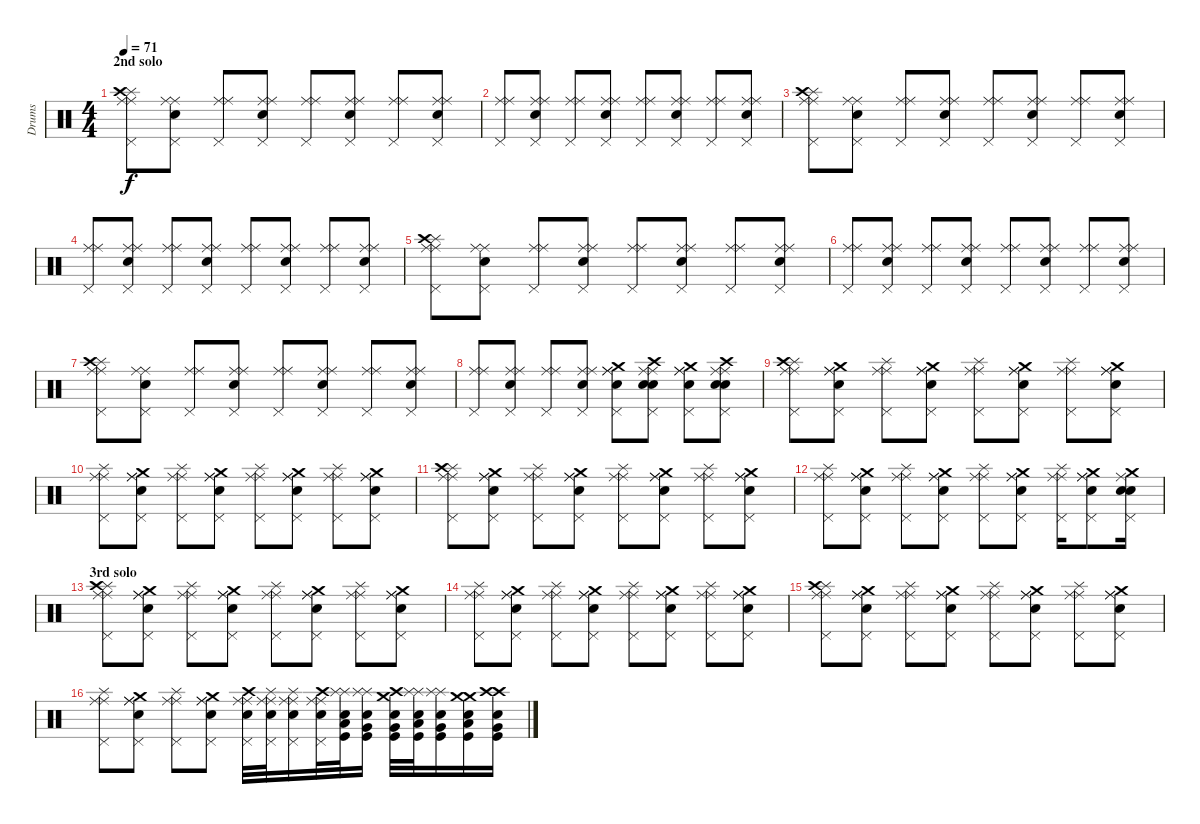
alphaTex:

\track ("Drums" "Drums") {instrument percussion}
\staff {score}
\articulation defaults
\ts (4 4)
\section ("" "2nd solo")
\tempo 71
\clef neutral
\ks c
("Splash (hit)" "Crash high (hit)" "Ride (middle)" "Pedal Hi-Hat (hit)" "Ride (middle)").8{dy f} ("Snare (hit) 2" "Ride (middle)" "Pedal Hi-Hat (hit)" "Ride (middle)").8 ("Ride (middle)" "Pedal Hi-Hat (hit)" "Ride (middle)").8 ("Electric Snare (hit)" "Ride (middle)" "Pedal Hi-Hat (hit)" "Ride (middle)").8 ("Ride (middle)" "Pedal Hi-Hat (hit)" "Ride (middle)").8 ("Snare (hit) 2" "Ride (middle)" "Pedal Hi-Hat (hit)" "Ride (middle)").8 ("Ride (middle)" "Pedal Hi-Hat (hit)" "Ride (middle)").8 ("Electric Snare (hit)" "Ride (middle)" "Pedal Hi-Hat (hit)" "Ride (middle)").8 |
("Ride (middle)" "Pedal Hi-Hat (hit)" "Ride (middle)").8 ("Snare (hit) 2" "Ride (middle)" "Pedal Hi-Hat (hit)" "Ride (middle)").8 ("Ride (middle)" "Pedal Hi-Hat (hit)" "Ride (middle)").8 ("Electric Snare (hit)" "Ride (middle)" "Pedal Hi-Hat (hit)" "Ride (middle)").8 ("Ride (middle)" "Pedal Hi-Hat (hit)" "Ride (middle)").8 ("Snare (hit) 2" "Ride (middle)" "Pedal Hi-Hat (hit)" "Ride (middle)").8 ("Ride (middle)" "Pedal Hi-Hat (hit)" "Ride (middle)").8 ("Electric Snare (hit)" "Ride (middle)" "Pedal Hi-Hat (hit)" "Ride (middle)").8 |
("Splash (hit)" "Crash high (hit)" "Ride (middle)" "Pedal Hi-Hat (hit)" "Ride (middle)").8 ("Snare (hit) 2" "Ride (middle)" "Pedal Hi-Hat (hit)" "Ride (middle)").8 ("Ride (middle)" "Pedal Hi-Hat (hit)" "Ride (middle)").8 ("Electric Snare (hit)" "Ride (middle)" "Pedal Hi-Hat (hit)" "Ride (middle)").8 ("Ride (middle)" "Pedal Hi-Hat (hit)" "Ride (middle)").8 ("Snare (hit) 2" "Ride (middle)" "Pedal Hi-Hat (hit)" "Ride (middle)").8 ("Ride (middle)" "Pedal Hi-Hat (hit)" "Ride (middle)").8 ("Electric Snare (hit)" "Ride (middle)" "Pedal Hi-Hat (hit)" "Ride (middle)").8 |
("Ride (middle)" "Pedal Hi-Hat (hit)" "Ride (middle)").8 ("Snare (hit) 2" "Ride (middle)" "Pedal Hi-Hat (hit)" "Ride (middle)").8 ("Ride (middle)" "Pedal Hi-Hat (hit)" "Ride (middle)").8 ("Electric Snare (hit)" "Ride (middle)" "Pedal Hi-Hat (hit)" "Ride (middle)").8 ("Ride (middle)" "Pedal Hi-Hat (hit)" "Ride (middle)").8 ("Snare (hit) 2" "Ride (middle)" "Pedal Hi-Hat (hit)" "Ride (middle)").8 ("Ride (middle)" "Pedal Hi-Hat (hit)" "Ride (middle)").8 ("Electric Snare (hit)" "Ride (middle)" "Pedal Hi-Hat (hit)" "Ride (middle)").8 |
("Splash (hit)" "Crash high (hit)" "Ride (middle)" "Pedal Hi-Hat (hit)" "Ride (middle)").8 ("Snare (hit) 2" "Ride (middle)" "Pedal Hi-Hat (hit)" "Ride (middle)").8 ("Ride (middle)" "Pedal Hi-Hat (hit)" "Ride (middle)").8 ("Electric Snare (hit)" "Ride (middle)" "Pedal Hi-Hat (hit)" "Ride (middle)").8 ("Ride (middle)" "Pedal Hi-Hat (hit)" "Ride (middle)").8 ("Snare (hit) 2" "Ride (middle)" "Pedal Hi-Hat (hit)" "Ride (middle)").8 ("Ride (middle)" "Pedal Hi-Hat (hit)" "Ride (middle)").8 ("Electric Snare (hit)" "Ride (middle)" "Pedal Hi-Hat (hit)" "Ride (middle)").8 |
("Ride (middle)" "Pedal Hi-Hat (hit)" "Ride (middle)").8 ("Snare (hit) 2" "Ride (middle)" "Pedal Hi-Hat (hit)" "Ride (middle)").8 ("Ride (middle)" "Pedal Hi-Hat (hit)" "Ride (middle)").8 ("Electric Snare (hit)" "Ride (middle)" "Pedal Hi-Hat (hit)" "Ride (middle)").8 ("Ride (middle)" "Pedal Hi-Hat (hit)" "Ride (middle)").8 ("Snare (hit) 2" "Ride (middle)" "Pedal Hi-Hat (hit)" "Ride (middle)").8 ("Ride (middle)" "Pedal Hi-Hat (hit)" "Ride (middle)").8 ("Electric Snare (hit)" "Ride (middle)" "Pedal Hi-Hat (hit)" "Ride (middle)").8 |
("Splash (hit)" "Crash high (hit)" "Ride (middle)" "Pedal Hi-Hat (hit)" "Ride (middle)").8 ("Snare (hit) 2" "Ride (middle)" "Pedal Hi-Hat (hit)" "Ride (middle)").8 ("Ride (middle)" "Pedal Hi-Hat (hit)" "Ride (middle)").8 ("Electric Snare (hit)" "Ride (middle)" "Pedal Hi-Hat (hit)" "Ride (middle)").8 ("Ride (middle)" "Pedal Hi-Hat (hit)" "Ride (middle)").8 ("Snare (hit) 2" "Ride (middle)" "Pedal Hi-Hat (hit)" "Ride (middle)").8 ("Ride (middle)" "Pedal Hi-Hat (hit)" "Ride (middle)").8 ("Electric Snare (hit)" "Ride (middle)" "Pedal Hi-Hat (hit)" "Ride (middle)").8 |
("Ride (middle)" "Pedal Hi-Hat (hit)" "Ride (middle)").8 ("Snare (hit) 2" "Ride (middle)" "Pedal Hi-Hat (hit)" "Ride (middle)").8 ("Ride (middle)" "Pedal Hi-Hat (hit)" "Ride (middle)").8 ("Electric Snare (hit)" "Ride (middle)" "Pedal Hi-Hat (hit)" "Ride (middle)").8 ("Crash medium (hit)" "Electric Snare (hit)" "Ride (middle)" "Pedal Hi-Hat (hit)" "Ride (middle)").8 ("Electric Snare (hit)" "Snare (hit) 2" "Ride (middle)" "Pedal Hi-Hat (hit)" "Ride (middle)" "Crash high (hit)").8 ("Crash medium (hit)" "Electric Snare (hit)" "Ride (middle)" "Pedal Hi-Hat (hit)" "Ride (middle)").8 ("Electric Snare (hit)" "Snare (hit) 2" "Ride (middle)" "Pedal Hi-Hat (hit)" "Ride (middle)" "Crash high (hit)").8 |
("Splash (hit)" "Crash high (hit)" "Ride (middle)" "Pedal Hi-Hat (hit)" "Ride (middle)").8 ("Snare (hit) 2" "Ride (middle)" "Pedal Hi-Hat (hit)" "Ride (middle)" "Crash medium (hit)").8 ("Ride (middle)" "Pedal Hi-Hat (hit)" "Ride (middle)" "Splash (hit)").8 ("Electric Snare (hit)" "Ride (middle)" "Pedal Hi-Hat (hit)" "Ride (middle)" "Crash medium (hit)").8 ("Ride (middle)" "Pedal Hi-Hat (hit)" "Ride (middle)" "Splash (hit)").8 ("Snare (hit) 2" "Ride (middle)" "Pedal Hi-Hat (hit)" "Ride (middle)" "Crash medium (hit)").8 ("Ride (middle)" "Pedal Hi-Hat (hit)" "Ride (middle)" "Splash (hit)").8 ("Electric Snare (hit)" "Ride (middle)" "Pedal Hi-Hat (hit)" "Ride (middle)" "Crash medium (hit)").8 |
("Ride (middle)" "Pedal Hi-Hat (hit)" "Ride (middle)" "Splash (hit)").8 ("Snare (hit) 2" "Ride (middle)" "Pedal Hi-Hat (hit)" "Ride (middle)" "Crash medium (hit)").8 ("Ride (middle)" "Pedal Hi-Hat (hit)" "Ride (middle)" "Splash (hit)").8 ("Electric Snare (hit)" "Ride (middle)" "Pedal Hi-Hat (hit)" "Ride (middle)" "Crash medium (hit)").8 ("Ride (middle)" "Pedal Hi-Hat (hit)" "Ride (middle)" "Splash (hit)").8 ("Snare (hit) 2" "Ride (middle)" "Pedal Hi-Hat (hit)" "Ride (middle)" "Crash medium (hit)").8 ("Ride (middle)" "Pedal Hi-Hat (hit)" "Ride (middle)" "Splash (hit)").8 ("Electric Snare (hit)" "Ride (middle)" "Pedal Hi-Hat (hit)" "Ride (middle)" "Crash medium (hit)").8 |
("Splash (hit)" "Crash high (hit)" "Ride (middle)" "Pedal Hi-Hat (hit)" "Ride (middle)").8 ("Snare (hit) 2" "Ride (middle)" "Pedal Hi-Hat (hit)" "Ride (middle)" "Crash medium (hit)").8 ("Ride (middle)" "Pedal Hi-Hat (hit)" "Ride (middle)" "Splash (hit)").8 ("Electric Snare (hit)" "Ride (middle)" "Pedal Hi-Hat (hit)" "Ride (middle)" "Crash medium (hit)").8 ("Ride (middle)" "Pedal Hi-Hat (hit)" "Ride (middle)" "Splash (hit)").8 ("Snare (hit) 2" "Ride (middle)" "Pedal Hi-Hat (hit)" "Ride (middle)" "Crash medium (hit)").8 ("Ride (middle)" "Pedal Hi-Hat (hit)" "Ride (middle)" "Splash (hit)").8 ("Electric Snare (hit)" "Ride (middle)" "Pedal Hi-Hat (hit)" "Ride (middle)" "Crash medium (hit)").8 |
("Ride (middle)" "Pedal Hi-Hat (hit)" "Ride (middle)" "Splash (hit)").8 ("Snare (hit) 2" "Ride (middle)" "Pedal Hi-Hat (hit)" "Ride (middle)" "Crash medium (hit)").8 ("Ride (middle)" "Pedal Hi-Hat (hit)" "Ride (middle)" "Splash (hit)").8 ("Electric Snare (hit)" "Ride (middle)" "Pedal Hi-Hat (hit)" "Ride (middle)" "Crash medium (hit)").8 ("Ride (middle)" "Pedal Hi-Hat (hit)" "Ride (middle)" "Splash (hit)").8 ("Snare (hit) 2" "Ride (middle)" "Pedal Hi-Hat (hit)" "Ride (middle)" "Crash medium (hit)").8 ("Ride (middle)" "Pedal Hi-Hat (hit)" "Ride (middle)" "Splash (hit)").16 ("Electric Snare (hit)" "Ride (middle)" "Pedal Hi-Hat (hit)" "Ride (middle)" "Crash medium (hit)").8 ("Electric Snare (hit)" "Snare (hit) 2" "Pedal Hi-Hat (hit)" "Ride (middle)" "Crash medium (hit)").16 |
\section ("" "3rd solo")
("Splash (hit)" "Crash high (hit)" "Ride (middle)" "Pedal Hi-Hat (hit)" "Ride (middle)").8 ("Snare (hit) 2" "Ride (middle)" "Pedal Hi-Hat (hit)" "Ride (middle)" "Crash medium (hit)").8 ("Ride (middle)" "Pedal Hi-Hat (hit)" "Ride (middle)" "Splash (hit)").8 ("Electric Snare (hit)" "Ride (middle)" "Pedal Hi-Hat (hit)" "Ride (middle)" "Crash medium (hit)").8 ("Ride (middle)" "Pedal Hi-Hat (hit)" "Ride (middle)" "Splash (hit)").8 ("Snare (hit) 2" "Ride (middle)" "Pedal Hi-Hat (hit)" "Ride (middle)" "Crash medium (hit)").8 ("Ride (middle)" "Pedal Hi-Hat (hit)" "Ride (middle)" "Splash (hit)").8 ("Electric Snare (hit)" "Ride (middle)" "Pedal Hi-Hat (hit)" "Ride (middle)" "Crash medium (hit)").8 |
("Ride (middle)" "Pedal Hi-Hat (hit)" "Ride (middle)" "Splash (hit)").8 ("Snare (hit) 2" "Ride (middle)" "Pedal Hi-Hat (hit)" "Ride (middle)" "Crash medium (hit)").8 ("Ride (middle)" "Pedal Hi-Hat (hit)" "Ride (middle)" "Splash (hit)").8 ("Electric Snare (hit)" "Ride (middle)" "Pedal Hi-Hat (hit)" "Ride (middle)" "Crash medium (hit)").8 ("Ride (middle)" "Pedal Hi-Hat (hit)" "Ride (middle)" "Splash (hit)").8 ("Snare (hit) 2" "Ride (middle)" "Pedal Hi-Hat (hit)" "Ride (middle)" "Crash medium (hit)").8 ("Ride (middle)" "Pedal Hi-Hat (hit)" "Ride (middle)" "Splash (hit)").8 ("Electric Snare (hit)" "Ride (middle)" "Pedal Hi-Hat (hit)" "Ride (middle)" "Crash medium (hit)").8 |
("Splash (hit)" "Crash high (hit)" "Ride (middle)" "Pedal Hi-Hat (hit)" "Ride (middle)").8 ("Snare (hit) 2" "Ride (middle)" "Pedal Hi-Hat (hit)" "Ride (middle)" "Crash medium (hit)").8 ("Ride (middle)" "Pedal Hi-Hat (hit)" "Ride (middle)" "Splash (hit)").8 ("Electric Snare (hit)" "Ride (middle)" "Pedal Hi-Hat (hit)" "Ride (middle)" "Crash medium (hit)").8 ("Ride (middle)" "Pedal Hi-Hat (hit)" "Ride (middle)" "Splash (hit)").8 ("Snare (hit) 2" "Ride (middle)" "Pedal Hi-Hat (hit)" "Ride (middle)" "Crash medium (hit)").8 ("Ride (middle)" "Pedal Hi-Hat (hit)" "Ride (middle)" "Splash (hit)").8 ("Electric Snare (hit)" "Ride (middle)" "Pedal Hi-Hat (hit)" "Ride (middle)" "Crash medium (hit)").8 |
("Ride (middle)" "Pedal Hi-Hat (hit)" "Ride (middle)" "Splash (hit)").8 ("Snare (hit) 2" "Ride (middle)" "Pedal Hi-Hat (hit)" "Ride (middle)" "Crash medium (hit)").8 ("Ride (middle)" "Pedal Hi-Hat (hit)" "Ride (middle)" "Splash (hit)").8 ("Electric Snare (hit)" "Ride (middle)" "Pedal Hi-Hat (hit)" "Ride (middle)" "Crash medium (hit)").8 ("Electric Snare (hit)" "Ride (middle)" "Pedal Hi-Hat (hit)" "Ride (middle)" "Crash high (hit)").32 ("Snare (hit) 2" "Ride (middle)" "Pedal Hi-Hat (hit)" "Ride (middle)" "Splash (hit)").32 ("Electric Snare (hit)" "Ride (middle)" "Pedal Hi-Hat (hit)" "Ride (middle)" "Splash (hit)").16 ("Electric Snare (hit)" "Ride (middle)" "Pedal Hi-Hat (hit)" "Ride (middle)" "Crash high (hit)").32 ("Snare (hit) 2" "Kick (hit)" "Low Floor Tom (hit)" "Splash (hit)" "Splash (hit)").32 ("Electric Snare (hit)" "Kick (hit)" "Very Low Tom (hit)" "Splash (hit)" "Splash (hit)").16 ("Electric Snare (hit)" "Kick (hit)" "Very Low Tom (hit)" "Crash medium (hit)" "Crash high (hit)").32 ("Snare (hit) 2" "Kick (hit)" "Low Floor Tom (hit)" "Splash (hit)" "Splash (hit)").32 ("Electric Snare (hit)" "Kick (hit)" "Very Low Tom (hit)" "Splash (hit)" "Splash (hit)").16 ("Electric Snare (hit)" "Kick (hit)" "Low Floor Tom (hit)" "Crash medium (hit)" "Crash medium (hit)").16 ("Electric Snare (hit)" "Kick (hit)" "Very Low Tom (hit)" "Crash high (hit)" "Crash high (hit)").16
